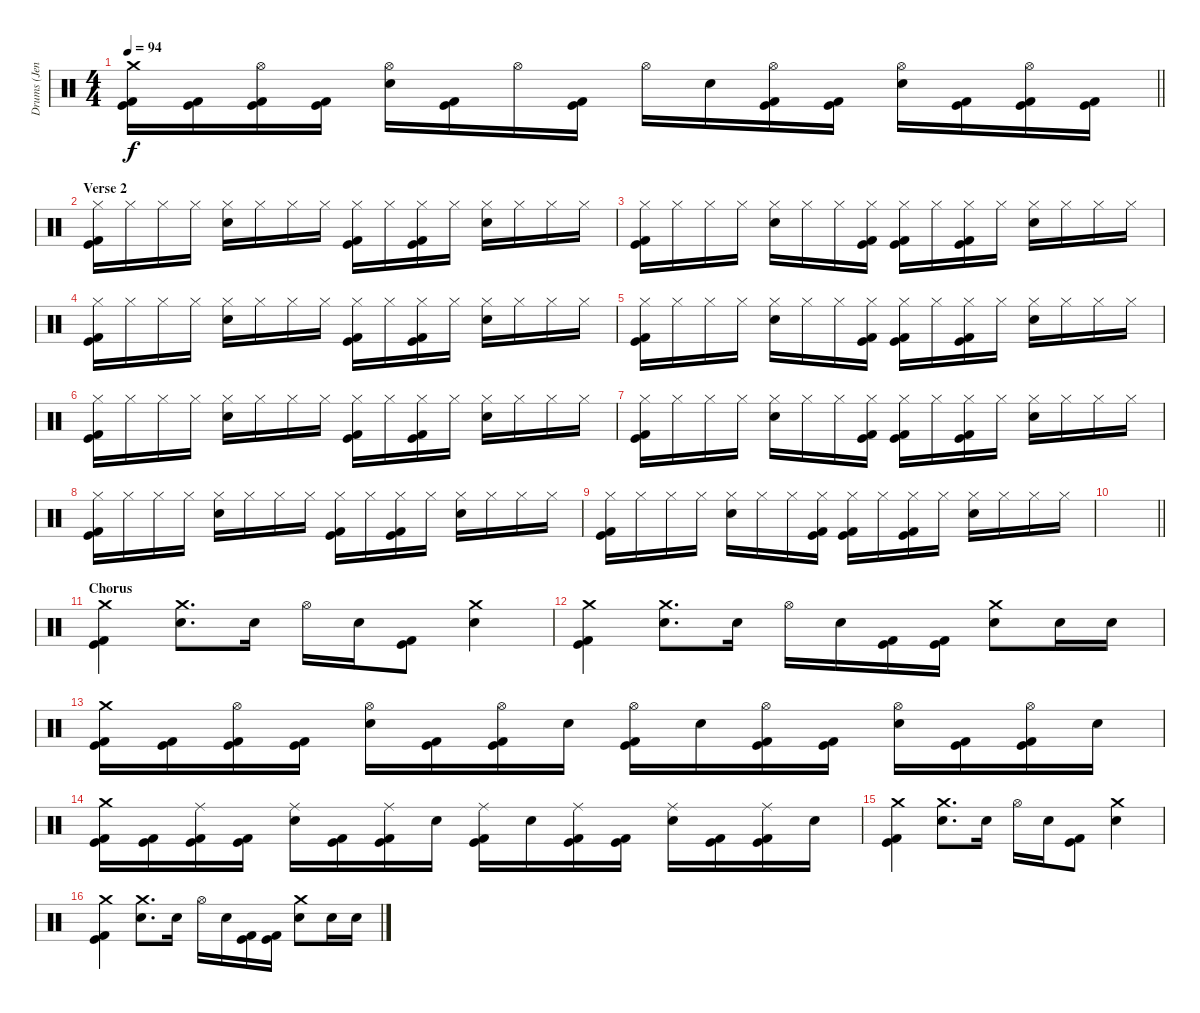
\track ("Drums (Jen Ledger)" "Drums (Jen") {instrument percussion}
\staff {score}
\articulation defaults
\ts (4 4)
\tempo 94
\clef neutral
\barLineRight lightlight
\ks c
("Crash medium (hit)" "Kick (hit) 2" "Kick (hit)").16{dy f} ("Kick (hit) 2" "Kick (hit)").16 ("Hi-Hat (open)" "Kick (hit) 2" "Kick (hit)").16 ("Kick (hit) 2" "Kick (hit)").16 ("Electric Snare (hit)" "Hi-Hat (open)").16 ("Kick (hit) 2" "Kick (hit)").16 "Hi-Hat (open)".16 ("Kick (hit) 2" "Kick (hit)").16 "Hi-Hat (open)".16 "Electric Snare (hit)".16 ("Hi-Hat (open)" "Kick (hit) 2" "Kick (hit)").16 ("Kick (hit) 2" "Kick (hit)").16 ("Electric Snare (hit)" "Hi-Hat (open)").16 ("Kick (hit) 2" "Kick (hit)").16 ("Hi-Hat (open)" "Kick (hit) 2" "Kick (hit)").16 ("Kick (hit) 2" "Kick (hit)").16 |
\section ("" "Verse 2")
("Hi-Hat (closed)" "Kick (hit) 2" "Kick (hit)").16 "Hi-Hat (closed)".16 "Hi-Hat (closed)".16 "Hi-Hat (closed)".16 ("Electric Snare (hit)" "Hi-Hat (closed)").16 "Hi-Hat (closed)".16 "Hi-Hat (closed)".16 "Hi-Hat (closed)".16 ("Hi-Hat (closed)" "Kick (hit) 2" "Kick (hit)").16 "Hi-Hat (closed)".16 ("Hi-Hat (closed)" "Kick (hit) 2" "Kick (hit)").16 "Hi-Hat (closed)".16 ("Electric Snare (hit)" "Hi-Hat (closed)").16 "Hi-Hat (closed)".16 "Hi-Hat (closed)".16 "Hi-Hat (closed)".16 |
("Hi-Hat (closed)" "Kick (hit) 2" "Kick (hit)").16 "Hi-Hat (closed)".16 "Hi-Hat (closed)".16 "Hi-Hat (closed)".16 ("Electric Snare (hit)" "Hi-Hat (closed)").16 "Hi-Hat (closed)".16 "Hi-Hat (closed)".16 ("Hi-Hat (closed)" "Kick (hit)" "Kick (hit) 2").16 ("Hi-Hat (closed)" "Kick (hit) 2" "Kick (hit)").16 "Hi-Hat (closed)".16 ("Hi-Hat (closed)" "Kick (hit) 2" "Kick (hit)").16 "Hi-Hat (closed)".16 ("Electric Snare (hit)" "Hi-Hat (closed)").16 "Hi-Hat (closed)".16 "Hi-Hat (closed)".16 "Hi-Hat (closed)".16 |
("Hi-Hat (closed)" "Kick (hit) 2" "Kick (hit)").16 "Hi-Hat (closed)".16 "Hi-Hat (closed)".16 "Hi-Hat (closed)".16 ("Electric Snare (hit)" "Hi-Hat (closed)").16 "Hi-Hat (closed)".16 "Hi-Hat (closed)".16 "Hi-Hat (closed)".16 ("Hi-Hat (closed)" "Kick (hit) 2" "Kick (hit)").16 "Hi-Hat (closed)".16 ("Hi-Hat (closed)" "Kick (hit) 2" "Kick (hit)").16 "Hi-Hat (closed)".16 ("Electric Snare (hit)" "Hi-Hat (closed)").16 "Hi-Hat (closed)".16 "Hi-Hat (closed)".16 "Hi-Hat (closed)".16 |
("Hi-Hat (closed)" "Kick (hit) 2" "Kick (hit)").16 "Hi-Hat (closed)".16 "Hi-Hat (closed)".16 "Hi-Hat (closed)".16 ("Electric Snare (hit)" "Hi-Hat (closed)").16 "Hi-Hat (closed)".16 "Hi-Hat (closed)".16 ("Hi-Hat (closed)" "Kick (hit)" "Kick (hit) 2").16 ("Hi-Hat (closed)" "Kick (hit) 2" "Kick (hit)").16 "Hi-Hat (closed)".16 ("Hi-Hat (closed)" "Kick (hit) 2" "Kick (hit)").16 "Hi-Hat (closed)".16 ("Electric Snare (hit)" "Hi-Hat (closed)").16 "Hi-Hat (closed)".16 "Hi-Hat (closed)".16 "Hi-Hat (closed)".16 |
("Hi-Hat (closed)" "Kick (hit) 2" "Kick (hit)").16 "Hi-Hat (closed)".16 "Hi-Hat (closed)".16 "Hi-Hat (closed)".16 ("Electric Snare (hit)" "Hi-Hat (closed)").16 "Hi-Hat (closed)".16 "Hi-Hat (closed)".16 "Hi-Hat (closed)".16 ("Hi-Hat (closed)" "Kick (hit) 2" "Kick (hit)").16 "Hi-Hat (closed)".16 ("Hi-Hat (closed)" "Kick (hit) 2" "Kick (hit)").16 "Hi-Hat (closed)".16 ("Electric Snare (hit)" "Hi-Hat (closed)").16 "Hi-Hat (closed)".16 "Hi-Hat (closed)".16 "Hi-Hat (closed)".16 |
("Hi-Hat (closed)" "Kick (hit) 2" "Kick (hit)").16 "Hi-Hat (closed)".16 "Hi-Hat (closed)".16 "Hi-Hat (closed)".16 ("Electric Snare (hit)" "Hi-Hat (closed)").16 "Hi-Hat (closed)".16 "Hi-Hat (closed)".16 ("Hi-Hat (closed)" "Kick (hit)" "Kick (hit) 2").16 ("Hi-Hat (closed)" "Kick (hit) 2" "Kick (hit)").16 "Hi-Hat (closed)".16 ("Hi-Hat (closed)" "Kick (hit) 2" "Kick (hit)").16 "Hi-Hat (closed)".16 ("Electric Snare (hit)" "Hi-Hat (closed)").16 "Hi-Hat (closed)".16 "Hi-Hat (closed)".16 "Hi-Hat (closed)".16 |
("Hi-Hat (closed)" "Kick (hit) 2" "Kick (hit)").16 "Hi-Hat (closed)".16 "Hi-Hat (closed)".16 "Hi-Hat (closed)".16 ("Electric Snare (hit)" "Hi-Hat (closed)").16 "Hi-Hat (closed)".16 "Hi-Hat (closed)".16 "Hi-Hat (closed)".16 ("Hi-Hat (closed)" "Kick (hit) 2" "Kick (hit)").16 "Hi-Hat (closed)".16 ("Hi-Hat (closed)" "Kick (hit) 2" "Kick (hit)").16 "Hi-Hat (closed)".16 ("Electric Snare (hit)" "Hi-Hat (closed)").16 "Hi-Hat (closed)".16 "Hi-Hat (closed)".16 "Hi-Hat (closed)".16 |
("Hi-Hat (closed)" "Kick (hit) 2" "Kick (hit)").16 "Hi-Hat (closed)".16 "Hi-Hat (closed)".16 "Hi-Hat (closed)".16 ("Electric Snare (hit)" "Hi-Hat (closed)").16 "Hi-Hat (closed)".16 "Hi-Hat (closed)".16 ("Hi-Hat (closed)" "Kick (hit)" "Kick (hit) 2").16 ("Hi-Hat (closed)" "Kick (hit) 2" "Kick (hit)").16 "Hi-Hat (closed)".16 ("Hi-Hat (closed)" "Kick (hit) 2" "Kick (hit)").16 "Hi-Hat (closed)".16 ("Electric Snare (hit)" "Hi-Hat (closed)").16 "Hi-Hat (closed)".16 "Hi-Hat (closed)".16 "Hi-Hat (closed)".16 |
\barLineRight lightlight
|
\section ("" "Chorus")
("Crash medium (hit)" "Kick (hit) 2" "Kick (hit)").4 ("Electric Snare (hit)" "Crash medium (hit)").8{d} "Electric Snare (hit)".16 "Hi-Hat (open)".16 "Electric Snare (hit)".16 ("Kick (hit) 2" "Kick (hit)").8 ("Electric Snare (hit)" "Crash medium (hit)").4 |
("Crash medium (hit)" "Kick (hit) 2" "Kick (hit)").4 ("Electric Snare (hit)" "Crash medium (hit)").8{d} "Electric Snare (hit)".16 "Hi-Hat (open)".16 "Electric Snare (hit)".16 ("Kick (hit) 2" "Kick (hit)").16 ("Kick (hit) 2" "Kick (hit)").16 ("Electric Snare (hit)" "Crash medium (hit)").8 "Electric Snare (hit)".16 "Electric Snare (hit)".16 |
("Crash medium (hit)" "Kick (hit) 2" "Kick (hit)").16 ("Kick (hit) 2" "Kick (hit)").16 ("Hi-Hat (open)" "Kick (hit) 2" "Kick (hit)").16 ("Kick (hit) 2" "Kick (hit)").16 ("Electric Snare (hit)" "Hi-Hat (open)").16 ("Kick (hit) 2" "Kick (hit)").16 ("Hi-Hat (open)" "Kick (hit) 2" "Kick (hit)").16 "Electric Snare (hit)".16 ("Hi-Hat (open)" "Kick (hit) 2" "Kick (hit)").16 "Electric Snare (hit)".16 ("Hi-Hat (open)" "Kick (hit) 2" "Kick (hit)").16 ("Kick (hit) 2" "Kick (hit)").16 ("Electric Snare (hit)" "Hi-Hat (open)").16 ("Kick (hit) 2" "Kick (hit)").16 ("Hi-Hat (open)" "Kick (hit) 2" "Kick (hit)").16 "Electric Snare (hit)".16 |
("Crash medium (hit)" "Kick (hit) 2" "Kick (hit)").16 ("Kick (hit) 2" "Kick (hit)").16 ("Ride (middle)" "Kick (hit) 2" "Kick (hit)").16 ("Kick (hit) 2" "Kick (hit)").16 ("Electric Snare (hit)" "Ride (middle)").16 ("Kick (hit) 2" "Kick (hit)").16 ("Ride (middle)" "Kick (hit) 2" "Kick (hit)").16 "Electric Snare (hit)".16 ("Ride (middle)" "Kick (hit) 2" "Kick (hit)").16 "Electric Snare (hit)".16 ("Ride (middle)" "Kick (hit) 2" "Kick (hit)").16 ("Kick (hit) 2" "Kick (hit)").16 ("Electric Snare (hit)" "Ride (middle)").16 ("Kick (hit) 2" "Kick (hit)").16 ("Ride (middle)" "Kick (hit) 2" "Kick (hit)").16 "Electric Snare (hit)".16 |
("Crash medium (hit)" "Kick (hit) 2" "Kick (hit)").4 ("Electric Snare (hit)" "Crash medium (hit)").8{d} "Electric Snare (hit)".16 "Hi-Hat (open)".16 "Electric Snare (hit)".16 ("Kick (hit) 2" "Kick (hit)").8 ("Electric Snare (hit)" "Crash medium (hit)").4 |
("Crash medium (hit)" "Kick (hit) 2" "Kick (hit)").4 ("Electric Snare (hit)" "Crash medium (hit)").8{d} "Electric Snare (hit)".16 "Hi-Hat (open)".16 "Electric Snare (hit)".16 ("Kick (hit) 2" "Kick (hit)").16 ("Kick (hit) 2" "Kick (hit)").16 ("Electric Snare (hit)" "Crash medium (hit)").8 "Electric Snare (hit)".16 "Electric Snare (hit)".16
